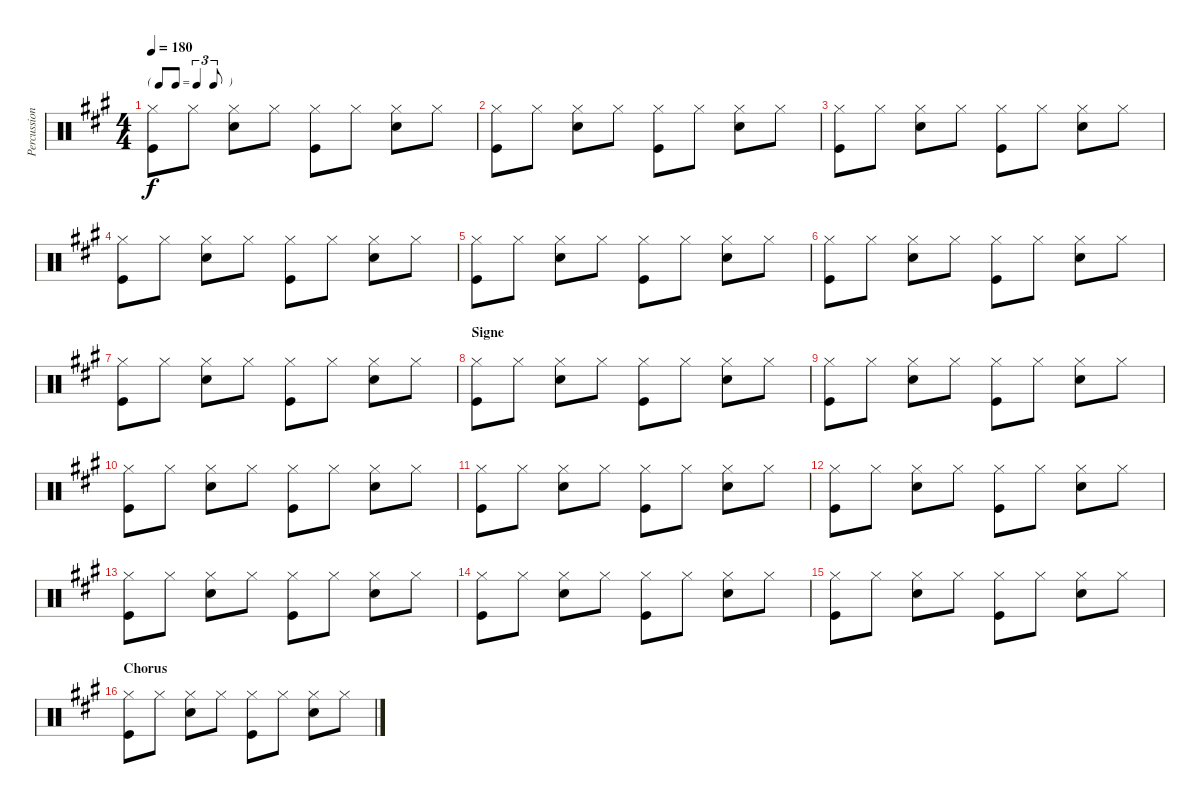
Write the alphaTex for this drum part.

\track ("Percussion" "Percussion") {instrument percussion}
\staff {score}
\articulation defaults
\ts (4 4)
\tf triplet8th
\tempo 180
\clef neutral
\ks a
("Hi-Hat (closed)" "Kick (hit)").8{dy f} "Hi-Hat (closed)".8 ("Hi-Hat (closed)" "Snare (hit) 2").8 "Hi-Hat (closed)".8 ("Hi-Hat (closed)" "Kick (hit)").8 "Hi-Hat (closed)".8 ("Hi-Hat (closed)" "Snare (hit) 2").8 "Hi-Hat (closed)".8 |
("Hi-Hat (closed)" "Kick (hit)").8 "Hi-Hat (closed)".8 ("Hi-Hat (closed)" "Snare (hit) 2").8 "Hi-Hat (closed)".8 ("Hi-Hat (closed)" "Kick (hit)").8 "Hi-Hat (closed)".8 ("Hi-Hat (closed)" "Snare (hit) 2").8 "Hi-Hat (closed)".8 |
("Hi-Hat (closed)" "Kick (hit)").8 "Hi-Hat (closed)".8 ("Hi-Hat (closed)" "Snare (hit) 2").8 "Hi-Hat (closed)".8 ("Hi-Hat (closed)" "Kick (hit)").8 "Hi-Hat (closed)".8 ("Hi-Hat (closed)" "Snare (hit) 2").8 "Hi-Hat (closed)".8 |
("Hi-Hat (closed)" "Kick (hit)").8 "Hi-Hat (closed)".8 ("Hi-Hat (closed)" "Snare (hit) 2").8 "Hi-Hat (closed)".8 ("Hi-Hat (closed)" "Kick (hit)").8 "Hi-Hat (closed)".8 ("Hi-Hat (closed)" "Snare (hit) 2").8 "Hi-Hat (closed)".8 |
("Hi-Hat (closed)" "Kick (hit)").8 "Hi-Hat (closed)".8 ("Hi-Hat (closed)" "Snare (hit) 2").8 "Hi-Hat (closed)".8 ("Hi-Hat (closed)" "Kick (hit)").8 "Hi-Hat (closed)".8 ("Hi-Hat (closed)" "Snare (hit) 2").8 "Hi-Hat (closed)".8 |
("Hi-Hat (closed)" "Kick (hit)").8 "Hi-Hat (closed)".8 ("Hi-Hat (closed)" "Snare (hit) 2").8 "Hi-Hat (closed)".8 ("Hi-Hat (closed)" "Kick (hit)").8 "Hi-Hat (closed)".8 ("Hi-Hat (closed)" "Snare (hit) 2").8 "Hi-Hat (closed)".8 |
("Hi-Hat (closed)" "Kick (hit)").8 "Hi-Hat (closed)".8 ("Hi-Hat (closed)" "Snare (hit) 2").8 "Hi-Hat (closed)".8 ("Hi-Hat (closed)" "Kick (hit)").8 "Hi-Hat (closed)".8 ("Hi-Hat (closed)" "Snare (hit) 2").8 "Hi-Hat (closed)".8 |
\section ("" "Signe")
("Hi-Hat (closed)" "Kick (hit)").8 "Hi-Hat (closed)".8 ("Hi-Hat (closed)" "Snare (hit) 2").8 "Hi-Hat (closed)".8 ("Hi-Hat (closed)" "Kick (hit)").8 "Hi-Hat (closed)".8 ("Hi-Hat (closed)" "Snare (hit) 2").8 "Hi-Hat (closed)".8 |
("Hi-Hat (closed)" "Kick (hit)").8 "Hi-Hat (closed)".8 ("Hi-Hat (closed)" "Snare (hit) 2").8 "Hi-Hat (closed)".8 ("Hi-Hat (closed)" "Kick (hit)").8 "Hi-Hat (closed)".8 ("Hi-Hat (closed)" "Snare (hit) 2").8 "Hi-Hat (closed)".8 |
("Hi-Hat (closed)" "Kick (hit)").8 "Hi-Hat (closed)".8 ("Hi-Hat (closed)" "Snare (hit) 2").8 "Hi-Hat (closed)".8 ("Hi-Hat (closed)" "Kick (hit)").8 "Hi-Hat (closed)".8 ("Hi-Hat (closed)" "Snare (hit) 2").8 "Hi-Hat (closed)".8 |
("Hi-Hat (closed)" "Kick (hit)").8 "Hi-Hat (closed)".8 ("Hi-Hat (closed)" "Snare (hit) 2").8 "Hi-Hat (closed)".8 ("Hi-Hat (closed)" "Kick (hit)").8 "Hi-Hat (closed)".8 ("Hi-Hat (closed)" "Snare (hit) 2").8 "Hi-Hat (closed)".8 |
("Hi-Hat (closed)" "Kick (hit)").8 "Hi-Hat (closed)".8 ("Hi-Hat (closed)" "Snare (hit) 2").8 "Hi-Hat (closed)".8 ("Hi-Hat (closed)" "Kick (hit)").8 "Hi-Hat (closed)".8 ("Hi-Hat (closed)" "Snare (hit) 2").8 "Hi-Hat (closed)".8 |
("Hi-Hat (closed)" "Kick (hit)").8 "Hi-Hat (closed)".8 ("Hi-Hat (closed)" "Snare (hit) 2").8 "Hi-Hat (closed)".8 ("Hi-Hat (closed)" "Kick (hit)").8 "Hi-Hat (closed)".8 ("Hi-Hat (closed)" "Snare (hit) 2").8 "Hi-Hat (closed)".8 |
("Hi-Hat (closed)" "Kick (hit)").8 "Hi-Hat (closed)".8 ("Hi-Hat (closed)" "Snare (hit) 2").8 "Hi-Hat (closed)".8 ("Hi-Hat (closed)" "Kick (hit)").8 "Hi-Hat (closed)".8 ("Hi-Hat (closed)" "Snare (hit) 2").8 "Hi-Hat (closed)".8 |
("Hi-Hat (closed)" "Kick (hit)").8 "Hi-Hat (closed)".8 ("Hi-Hat (closed)" "Snare (hit) 2").8 "Hi-Hat (closed)".8 ("Hi-Hat (closed)" "Kick (hit)").8 "Hi-Hat (closed)".8 ("Hi-Hat (closed)" "Snare (hit) 2").8 "Hi-Hat (closed)".8 |
\section ("" "Chorus")
("Hi-Hat (closed)" "Kick (hit)").8 "Hi-Hat (closed)".8 ("Hi-Hat (closed)" "Snare (hit) 2").8 "Hi-Hat (closed)".8 ("Hi-Hat (closed)" "Kick (hit)").8 "Hi-Hat (closed)".8 ("Hi-Hat (closed)" "Snare (hit) 2").8 "Hi-Hat (closed)".8
